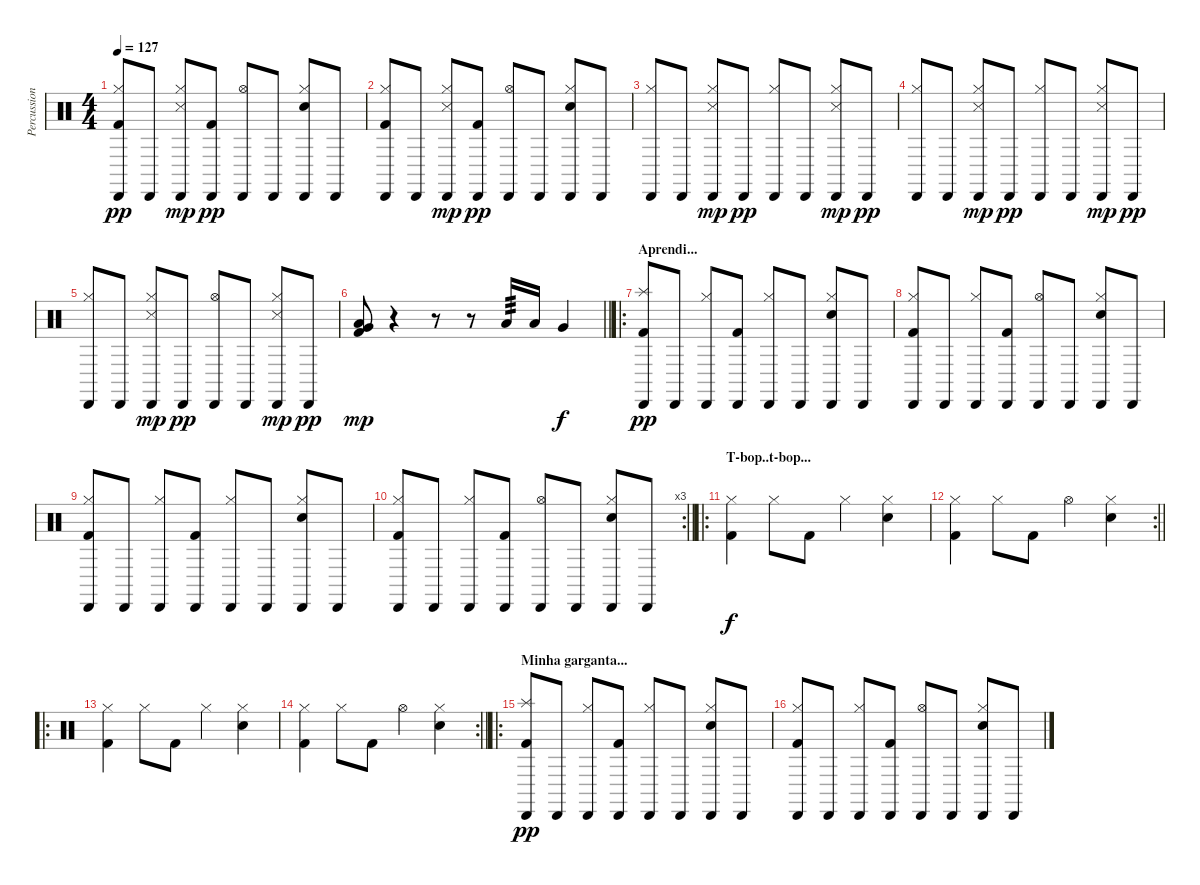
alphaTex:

\track ("Percussion" "Percussion") {instrument percussion}
\staff {score}
\articulation defaults
\ts (4 4)
\tempo 127
\clef neutral
\ks c
("Cabasa (hit)" "Hi-Hat (closed)" "Kick (hit) 2").8{dy pp} "Cabasa (hit)".8 ("Cabasa (hit)" "Hi-Hat (closed)" "Snare (side stick) 3").8{dy mp} ("Cabasa (hit)" "Kick (hit) 2").8{dy pp} ("Cabasa (hit)" "Hi-Hat (open)").8 "Cabasa (hit)".8 ("Cabasa (hit)" "Hi-Hat (closed)" "Electric Snare (hit)").8 "Cabasa (hit)".8 |
("Cabasa (hit)" "Hi-Hat (closed)" "Kick (hit) 2").8 "Cabasa (hit)".8 ("Cabasa (hit)" "Hi-Hat (closed)" "Snare (side stick) 3").8{dy mp} ("Cabasa (hit)" "Kick (hit) 2").8{dy pp} ("Cabasa (hit)" "Hi-Hat (open)").8 "Cabasa (hit)".8 ("Cabasa (hit)" "Hi-Hat (closed)" "Electric Snare (hit)").8 "Cabasa (hit)".8 |
("Cabasa (hit)" "Hi-Hat (closed)").8 "Cabasa (hit)".8 ("Cabasa (hit)" "Hi-Hat (closed)" "Snare (side stick) 3").8{dy mp} "Cabasa (hit)".8{dy pp} ("Cabasa (hit)" "Hi-Hat (closed)").8 "Cabasa (hit)".8 ("Cabasa (hit)" "Hi-Hat (closed)" "Snare (side stick) 3").8{dy mp} "Cabasa (hit)".8{dy pp} |
("Cabasa (hit)" "Hi-Hat (closed)").8 "Cabasa (hit)".8 ("Cabasa (hit)" "Hi-Hat (closed)" "Snare (side stick) 3").8{dy mp} "Cabasa (hit)".8{dy pp} ("Cabasa (hit)" "Hi-Hat (closed)").8 "Cabasa (hit)".8 ("Cabasa (hit)" "Hi-Hat (closed)" "Snare (side stick) 3").8{dy mp} "Cabasa (hit)".8{dy pp} |
("Cabasa (hit)" "Hi-Hat (closed)").8 "Cabasa (hit)".8 ("Cabasa (hit)" "Hi-Hat (closed)" "Snare (side stick) 3").8{dy mp} "Cabasa (hit)".8{dy pp} ("Cabasa (hit)" "Hi-Hat (open)").8 "Cabasa (hit)".8 ("Cabasa (hit)" "Hi-Hat (closed)" "Snare (side stick) 3").8{dy mp} "Cabasa (hit)".8{dy pp} |
\barLineRight lightlight
("Very Low Tom (hit)" "Low Tom (hit)" "Kick (hit) 2").8{dy mp} r.4 r.8 r.8 "Low Tom (hit)".16{tp 3} "Low Tom (hit)".16 "Very Low Tom (hit)".4{dy f} |
\ro
\section ("" "Aprendi...")
("Cabasa (hit)" "Splash (hit)" "Kick (hit) 2").8{dy pp} "Cabasa (hit)".8 ("Cabasa (hit)" "Hi-Hat (closed)").8 ("Cabasa (hit)" "Kick (hit) 2").8 ("Cabasa (hit)" "Hi-Hat (closed)").8 "Cabasa (hit)".8 ("Cabasa (hit)" "Hi-Hat (closed)" "Electric Snare (hit)").8 "Cabasa (hit)".8 |
("Cabasa (hit)" "Hi-Hat (closed)" "Kick (hit) 2").8 "Cabasa (hit)".8 ("Cabasa (hit)" "Hi-Hat (closed)").8 ("Cabasa (hit)" "Kick (hit) 2").8 ("Cabasa (hit)" "Hi-Hat (open)").8 "Cabasa (hit)".8 ("Cabasa (hit)" "Hi-Hat (closed)" "Electric Snare (hit)").8 "Cabasa (hit)".8 |
("Cabasa (hit)" "Hi-Hat (closed)" "Kick (hit) 2").8 "Cabasa (hit)".8 ("Cabasa (hit)" "Hi-Hat (closed)").8 ("Cabasa (hit)" "Kick (hit) 2").8 ("Cabasa (hit)" "Hi-Hat (closed)").8 "Cabasa (hit)".8 ("Cabasa (hit)" "Hi-Hat (closed)" "Electric Snare (hit)").8 "Cabasa (hit)".8 |
\rc 3
\barLineRight lightlight
("Cabasa (hit)" "Hi-Hat (closed)" "Kick (hit) 2").8 "Cabasa (hit)".8 ("Cabasa (hit)" "Hi-Hat (closed)").8 ("Cabasa (hit)" "Kick (hit) 2").8 ("Cabasa (hit)" "Hi-Hat (open)").8 "Cabasa (hit)".8 ("Cabasa (hit)" "Hi-Hat (closed)" "Electric Snare (hit)").8 "Cabasa (hit)".8 |
\ro
\section ("" "T-bop..t-bop...")
("Hi-Hat (closed)" "Kick (hit) 2").4{dy f} "Hi-Hat (closed)".8 "Kick (hit) 2".8 "Hi-Hat (closed)".4 ("Hi-Hat (closed)" "Electric Snare (hit)").4 |
\rc 2
\barLineRight lightlight
("Hi-Hat (closed)" "Kick (hit) 2").4 "Hi-Hat (closed)".8 "Kick (hit) 2".8 "Hi-Hat (open)".4 ("Hi-Hat (closed)" "Electric Snare (hit)").4 |
\ro
("Hi-Hat (closed)" "Kick (hit) 2").4 "Hi-Hat (closed)".8 "Kick (hit) 2".8 "Hi-Hat (closed)".4 ("Hi-Hat (closed)" "Electric Snare (hit)").4 |
\rc 2
\barLineRight lightlight
("Hi-Hat (closed)" "Kick (hit) 2").4 "Hi-Hat (closed)".8 "Kick (hit) 2".8 "Hi-Hat (open)".4 ("Hi-Hat (closed)" "Electric Snare (hit)").4 |
\ro
\section ("" "Minha garganta...")
("Cabasa (hit)" "Splash (hit)" "Kick (hit) 2").8{dy pp} "Cabasa (hit)".8 ("Cabasa (hit)" "Hi-Hat (closed)").8 ("Cabasa (hit)" "Kick (hit) 2").8 ("Cabasa (hit)" "Hi-Hat (closed)").8 "Cabasa (hit)".8 ("Cabasa (hit)" "Hi-Hat (closed)" "Electric Snare (hit)").8 "Cabasa (hit)".8 |
("Cabasa (hit)" "Hi-Hat (closed)" "Kick (hit) 2").8 "Cabasa (hit)".8 ("Cabasa (hit)" "Hi-Hat (closed)").8 ("Cabasa (hit)" "Kick (hit) 2").8 ("Cabasa (hit)" "Hi-Hat (open)").8 "Cabasa (hit)".8 ("Cabasa (hit)" "Hi-Hat (closed)" "Electric Snare (hit)").8 "Cabasa (hit)".8
